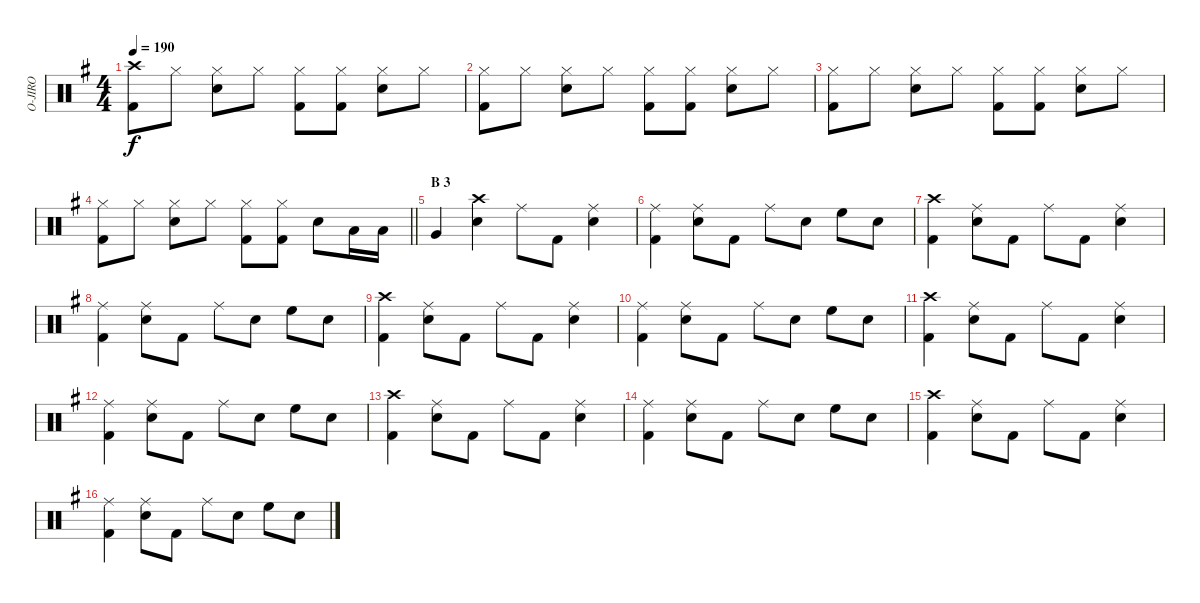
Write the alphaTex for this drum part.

\track ("O-JIRO" "O-JIRO") {instrument percussion}
\staff {score}
\articulation defaults
\ts (4 4)
\tempo 190
\clef neutral
\ks g
("Crash high (hit)" "Kick (hit) 2").8{dy f} "Hi-Hat (closed)".8 ("Hi-Hat (closed)" "Snare (hit) 2").8 "Hi-Hat (closed)".8 ("Hi-Hat (closed)" "Kick (hit) 2").8 ("Hi-Hat (closed)" "Kick (hit) 2").8 ("Hi-Hat (closed)" "Snare (hit) 2").8 "Hi-Hat (closed)".8 |
("Hi-Hat (closed)" "Kick (hit) 2").8 "Hi-Hat (closed)".8 ("Hi-Hat (closed)" "Snare (hit) 2").8 "Hi-Hat (closed)".8 ("Hi-Hat (closed)" "Kick (hit) 2").8 ("Hi-Hat (closed)" "Kick (hit) 2").8 ("Hi-Hat (closed)" "Snare (hit) 2").8 "Hi-Hat (closed)".8 |
("Hi-Hat (closed)" "Kick (hit) 2").8 "Hi-Hat (closed)".8 ("Hi-Hat (closed)" "Snare (hit) 2").8 "Hi-Hat (closed)".8 ("Hi-Hat (closed)" "Kick (hit) 2").8 ("Hi-Hat (closed)" "Kick (hit) 2").8 ("Hi-Hat (closed)" "Snare (hit) 2").8 "Hi-Hat (closed)".8 |
\barLineRight lightlight
("Hi-Hat (closed)" "Kick (hit) 2").8 "Hi-Hat (closed)".8 ("Hi-Hat (closed)" "Snare (hit) 2").8 "Hi-Hat (closed)".8 ("Hi-Hat (closed)" "Kick (hit) 2").8 ("Hi-Hat (closed)" "Kick (hit) 2").8 "Snare (hit) 2".8 "Low Tom (hit)".16 "Low Tom (hit)".16 |
\section ("" "B 3")
"Very Low Tom (hit)".4 ("Crash high (hit)" "Snare (hit) 2").4 "Ride (middle)".8 "Kick (hit) 2".8 ("Ride (middle)" "Snare (hit) 2").4 |
("Ride (middle)" "Kick (hit) 2").4 ("Ride (middle)" "Snare (hit) 2").8 "Kick (hit) 2".8 "Ride (middle)".8 "Snare (hit) 2".8 "High Floor Tom (hit)".8 "Snare (hit) 2".8 |
("Crash high (hit)" "Kick (hit) 2").4 ("Ride (middle)" "Snare (hit) 2").8 "Kick (hit) 2".8 "Ride (middle)".8 "Kick (hit) 2".8 ("Ride (middle)" "Snare (hit) 2").4 |
("Ride (middle)" "Kick (hit) 2").4 ("Ride (middle)" "Snare (hit) 2").8 "Kick (hit) 2".8 "Ride (middle)".8 "Snare (hit) 2".8 "High Floor Tom (hit)".8 "Snare (hit) 2".8 |
("Crash high (hit)" "Kick (hit) 2").4 ("Ride (middle)" "Snare (hit) 2").8 "Kick (hit) 2".8 "Ride (middle)".8 "Kick (hit) 2".8 ("Ride (middle)" "Snare (hit) 2").4 |
("Ride (middle)" "Kick (hit) 2").4 ("Ride (middle)" "Snare (hit) 2").8 "Kick (hit) 2".8 "Ride (middle)".8 "Snare (hit) 2".8 "High Floor Tom (hit)".8 "Snare (hit) 2".8 |
("Crash high (hit)" "Kick (hit) 2").4 ("Ride (middle)" "Snare (hit) 2").8 "Kick (hit) 2".8 "Ride (middle)".8 "Kick (hit) 2".8 ("Ride (middle)" "Snare (hit) 2").4 |
("Ride (middle)" "Kick (hit) 2").4 ("Ride (middle)" "Snare (hit) 2").8 "Kick (hit) 2".8 "Ride (middle)".8 "Snare (hit) 2".8 "High Floor Tom (hit)".8 "Snare (hit) 2".8 |
("Crash high (hit)" "Kick (hit) 2").4 ("Ride (middle)" "Snare (hit) 2").8 "Kick (hit) 2".8 "Ride (middle)".8 "Kick (hit) 2".8 ("Ride (middle)" "Snare (hit) 2").4 |
("Ride (middle)" "Kick (hit) 2").4 ("Ride (middle)" "Snare (hit) 2").8 "Kick (hit) 2".8 "Ride (middle)".8 "Snare (hit) 2".8 "High Floor Tom (hit)".8 "Snare (hit) 2".8 |
("Crash high (hit)" "Kick (hit) 2").4 ("Ride (middle)" "Snare (hit) 2").8 "Kick (hit) 2".8 "Ride (middle)".8 "Kick (hit) 2".8 ("Ride (middle)" "Snare (hit) 2").4 |
("Ride (middle)" "Kick (hit) 2").4 ("Ride (middle)" "Snare (hit) 2").8 "Kick (hit) 2".8 "Ride (middle)".8 "Snare (hit) 2".8 "High Floor Tom (hit)".8 "Snare (hit) 2".8
